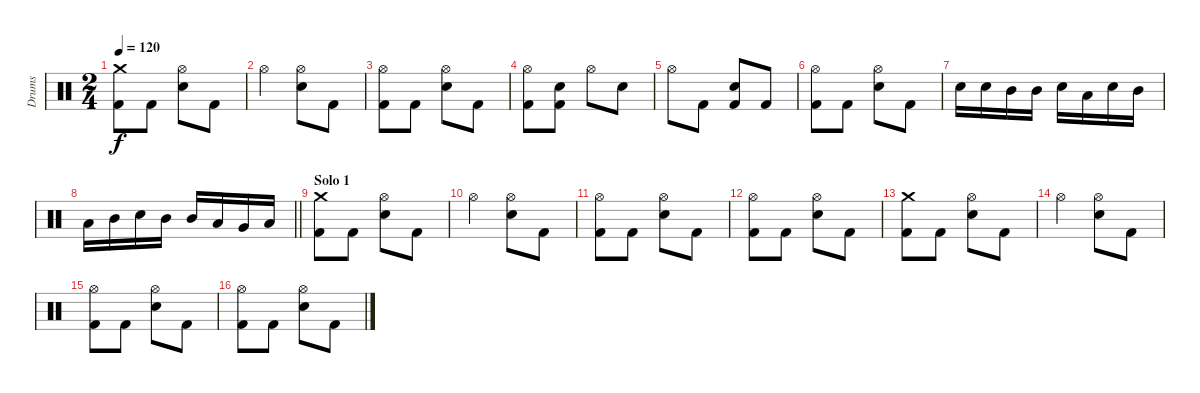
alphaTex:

\track ("Drums" "Drums") {instrument percussion}
\staff {score}
\articulation defaults
\ts (2 4)
\tempo 120
\clef neutral
\ks c
("Crash medium (hit)" "Kick (hit) 2").8{dy f} "Kick (hit) 2".8 ("Electric Snare (hit)" "Hi-Hat (open)").8 "Kick (hit) 2".8 |
"Hi-Hat (open)".4 ("Electric Snare (hit)" "Hi-Hat (open)").8 "Kick (hit) 2".8 |
("Hi-Hat (open)" "Kick (hit) 2").8 "Kick (hit) 2".8 ("Electric Snare (hit)" "Hi-Hat (open)").8 "Kick (hit) 2".8 |
("Hi-Hat (open)" "Kick (hit) 2").8 ("Electric Snare (hit)" "Kick (hit) 2").8 "Hi-Hat (open)".8 "Electric Snare (hit)".8 |
"Hi-Hat (open)".8 "Kick (hit) 2".8 ("Electric Snare (hit)" "Kick (hit) 2").8 "Kick (hit) 2".8 |
("Hi-Hat (open)" "Kick (hit) 2").8 "Kick (hit) 2".8 ("Electric Snare (hit)" "Hi-Hat (open)").8 "Kick (hit) 2".8 |
"Electric Snare (hit)".16 "Electric Snare (hit)".16 "Mid Tom (hit)".16 "Mid Tom (hit)".16 "Electric Snare (hit)".16 "Low Tom (hit)".16 "Electric Snare (hit)".16 "Mid Tom (hit)".16 |
\barLineRight lightlight "Low Tom (hit)".16 "Mid Tom (hit)".16 "Electric Snare (hit)".16 "Mid Tom (hit)".16 "Mid Tom (hit)".16 "Low Tom (hit)".16 "Very Low Tom (hit)".16 "Low Floor Tom (hit)".16
|
\section ("" "Solo 1")
("Crash medium (hit)" "Kick (hit) 2").8 "Kick (hit) 2".8 ("Electric Snare (hit)" "Hi-Hat (open)").8 "Kick (hit) 2".8 |
"Hi-Hat (open)".4 ("Electric Snare (hit)" "Hi-Hat (open)").8 "Kick (hit) 2".8 |
("Hi-Hat (open)" "Kick (hit) 2").8 "Kick (hit) 2".8 ("Electric Snare (hit)" "Hi-Hat (open)").8 "Kick (hit) 2".8 |
("Hi-Hat (open)" "Kick (hit) 2").8 "Kick (hit) 2".8 ("Electric Snare (hit)" "Hi-Hat (open)").8 "Kick (hit) 2".8 |
("Crash medium (hit)" "Kick (hit) 2").8 "Kick (hit) 2".8 ("Electric Snare (hit)" "Hi-Hat (open)").8 "Kick (hit) 2".8 |
"Hi-Hat (open)".4 ("Electric Snare (hit)" "Hi-Hat (open)").8 "Kick (hit) 2".8 |
("Hi-Hat (open)" "Kick (hit) 2").8 "Kick (hit) 2".8 ("Electric Snare (hit)" "Hi-Hat (open)").8 "Kick (hit) 2".8 |
("Hi-Hat (open)" "Kick (hit) 2").8 "Kick (hit) 2".8 ("Electric Snare (hit)" "Hi-Hat (open)").8 "Kick (hit) 2".8
